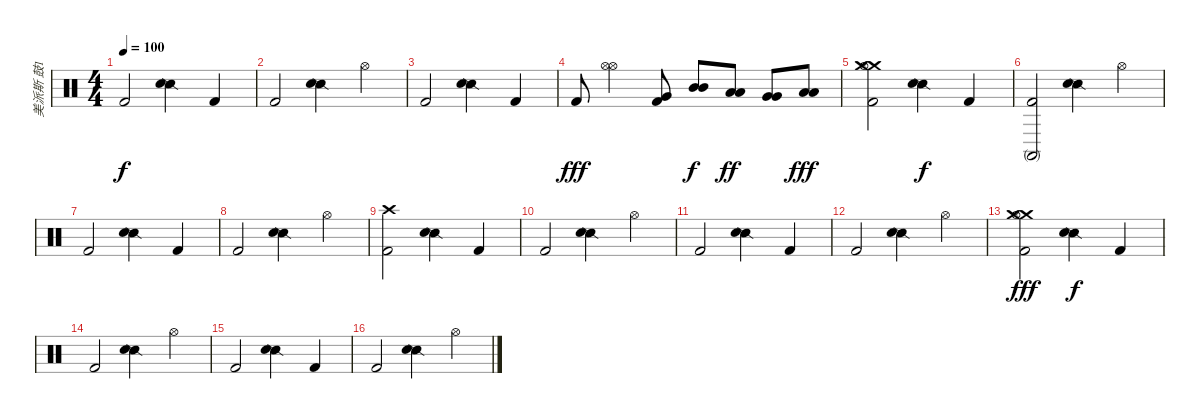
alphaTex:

\track ("美派斯 鼓1" "美派斯 鼓1") {instrument percussion}
\staff {score}
\articulation defaults
\ts (4 4)
\tempo 100
\clef neutral
\ks c "Kick (hit) 2".2{dy f}
("Snare (side stick) 2" "Snare (hit) 2").4 "Kick (hit) 2".4 |
"Kick (hit) 2".2 ("Snare (side stick) 2" "Snare (hit) 2").4 "Hi-Hat (open)".4 |
"Kick (hit) 2".2 ("Snare (side stick) 2" "Snare (hit) 2").4 "Kick (hit) 2".4 |
"Kick (hit) 2".8{dy fff} ("Hi-Hat (open)" "Hi-Hat (open)").4 ("Very Low Tom (hit)" "Kick (hit) 2").8 ("Mid Tom (hit)" "Mid Tom (hit)").8{dy f} ("Low Tom (hit)" "Low Tom (hit)").8{dy ff} ("Very Low Tom (hit)" "Very Low Tom (hit)").8 ("Low Floor Tom (hit)" "Low Floor Tom (hit)").8{dy fff} |
("Crash medium (hit)" "Crash medium (hit)" "Kick (hit) 2" "Hi-Hat (open)").2 ("Snare (side stick) 2" "Snare (hit) 2").4{dy f} "Kick (hit) 2".4 |
("Conga high (mute)" "Kick (hit) 2").2 ("Snare (side stick) 2" "Snare (hit) 2").4 "Hi-Hat (open)".4 |
"Kick (hit) 2".2 ("Snare (side stick) 2" "Snare (hit) 2").4 "Kick (hit) 2".4 |
"Kick (hit) 2".2 ("Snare (side stick) 2" "Snare (hit) 2").4 "Hi-Hat (open)".4 |
("Crash high (hit)" "Kick (hit) 2").2 ("Snare (side stick) 2" "Snare (hit) 2").4 "Kick (hit) 2".4 |
"Kick (hit) 2".2 ("Snare (side stick) 2" "Snare (hit) 2").4 "Hi-Hat (open)".4 |
"Kick (hit) 2".2 ("Snare (side stick) 2" "Snare (hit) 2").4 "Kick (hit) 2".4 |
"Kick (hit) 2".2 ("Snare (side stick) 2" "Snare (hit) 2").4 "Hi-Hat (open)".4 |
("Crash medium (hit)" "Crash medium (hit)" "Kick (hit) 2" "Hi-Hat (open)").2{dy fff} ("Snare (side stick) 2" "Snare (hit) 2").4{dy f} "Kick (hit) 2".4 |
"Kick (hit) 2".2 ("Snare (side stick) 2" "Snare (hit) 2").4 "Hi-Hat (open)".4 |
"Kick (hit) 2".2 ("Snare (side stick) 2" "Snare (hit) 2").4 "Kick (hit) 2".4 |
"Kick (hit) 2".2 ("Snare (side stick) 2" "Snare (hit) 2").4 "Hi-Hat (open)".4
